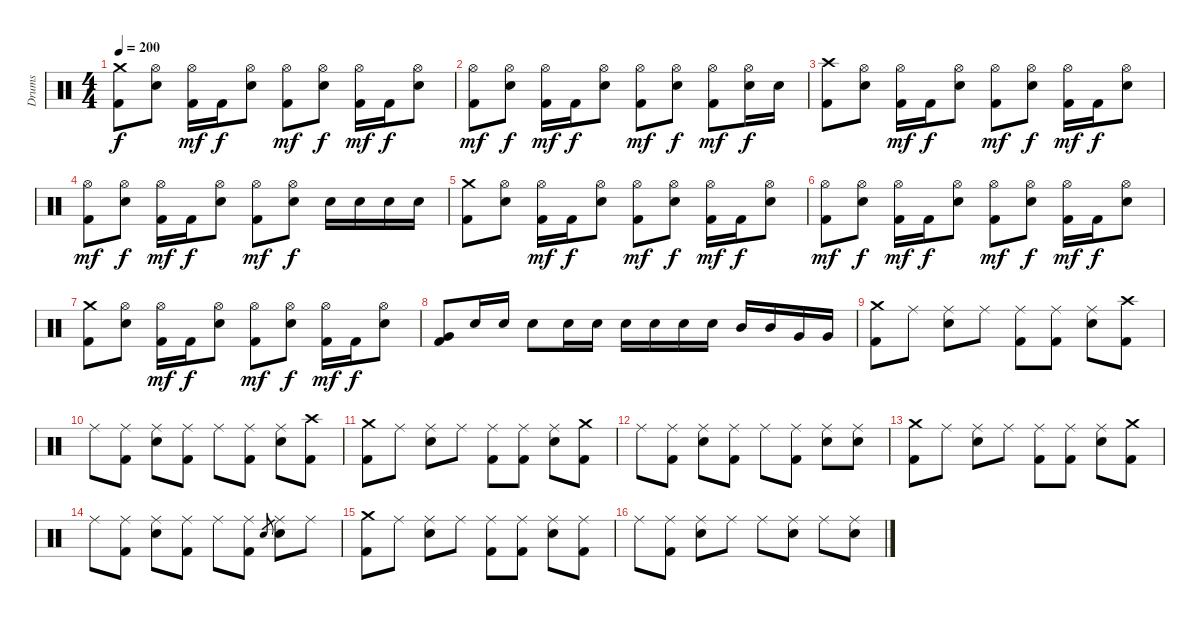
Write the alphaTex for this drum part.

\track ("Drums" "Drums") {instrument percussion}
\staff {score}
\articulation defaults
\ts (4 4)
\tempo 200
\clef neutral
\ks c
("Crash medium (hit)" "Kick (hit) 2").8{dy f} ("Hi-Hat (open)" "Electric Snare (hit)").8 ("Hi-Hat (open)" "Kick (hit) 2").16{dy mf} "Kick (hit) 2".16{dy f} ("Hi-Hat (open)" "Electric Snare (hit)").8 ("Hi-Hat (open)" "Kick (hit) 2").8{dy mf} ("Hi-Hat (open)" "Electric Snare (hit)").8{dy f} ("Hi-Hat (open)" "Kick (hit) 2").16{dy mf} "Kick (hit) 2".16{dy f} ("Hi-Hat (open)" "Electric Snare (hit)").8 |
("Hi-Hat (open)" "Kick (hit) 2").8{dy mf} ("Hi-Hat (open)" "Electric Snare (hit)").8{dy f} ("Hi-Hat (open)" "Kick (hit) 2").16{dy mf} "Kick (hit) 2".16{dy f} ("Hi-Hat (open)" "Electric Snare (hit)").8 ("Hi-Hat (open)" "Kick (hit) 2").8{dy mf} ("Hi-Hat (open)" "Electric Snare (hit)").8{dy f} ("Hi-Hat (open)" "Kick (hit) 2").8{dy mf} ("Hi-Hat (open)" "Electric Snare (hit)").16{dy f} "Electric Snare (hit)".16 |
("Crash high (hit)" "Kick (hit) 2").8 ("Hi-Hat (open)" "Electric Snare (hit)").8 ("Hi-Hat (open)" "Kick (hit) 2").16{dy mf} "Kick (hit) 2".16{dy f} ("Hi-Hat (open)" "Electric Snare (hit)").8 ("Hi-Hat (open)" "Kick (hit) 2").8{dy mf} ("Hi-Hat (open)" "Electric Snare (hit)").8{dy f} ("Hi-Hat (open)" "Kick (hit) 2").16{dy mf} "Kick (hit) 2".16{dy f} ("Hi-Hat (open)" "Electric Snare (hit)").8 |
("Hi-Hat (open)" "Kick (hit) 2").8{dy mf} ("Hi-Hat (open)" "Electric Snare (hit)").8{dy f} ("Hi-Hat (open)" "Kick (hit) 2").16{dy mf} "Kick (hit) 2".16{dy f} ("Hi-Hat (open)" "Electric Snare (hit)").8 ("Hi-Hat (open)" "Kick (hit) 2").8{dy mf} ("Hi-Hat (open)" "Electric Snare (hit)").8{dy f} "Electric Snare (hit)".16 "Electric Snare (hit)".16 "Electric Snare (hit)".16 "Electric Snare (hit)".16 |
("Crash medium (hit)" "Kick (hit) 2").8 ("Hi-Hat (open)" "Electric Snare (hit)").8 ("Hi-Hat (open)" "Kick (hit) 2").16{dy mf} "Kick (hit) 2".16{dy f} ("Hi-Hat (open)" "Electric Snare (hit)").8 ("Hi-Hat (open)" "Kick (hit) 2").8{dy mf} ("Hi-Hat (open)" "Electric Snare (hit)").8{dy f} ("Hi-Hat (open)" "Kick (hit) 2").16{dy mf} "Kick (hit) 2".16{dy f} ("Hi-Hat (open)" "Electric Snare (hit)").8 |
("Hi-Hat (open)" "Kick (hit) 2").8{dy mf} ("Hi-Hat (open)" "Electric Snare (hit)").8{dy f} ("Hi-Hat (open)" "Kick (hit) 2").16{dy mf} "Kick (hit) 2".16{dy f} ("Hi-Hat (open)" "Electric Snare (hit)").8 ("Hi-Hat (open)" "Kick (hit) 2").8{dy mf} ("Hi-Hat (open)" "Electric Snare (hit)").8{dy f} ("Hi-Hat (open)" "Kick (hit) 2").16{dy mf} "Kick (hit) 2".16{dy f} ("Hi-Hat (open)" "Electric Snare (hit)").8 |
("Crash medium (hit)" "Kick (hit) 2").8 ("Hi-Hat (open)" "Electric Snare (hit)").8 ("Hi-Hat (open)" "Kick (hit) 2").16{dy mf} "Kick (hit) 2".16{dy f} ("Hi-Hat (open)" "Electric Snare (hit)").8 ("Hi-Hat (open)" "Kick (hit) 2").8{dy mf} ("Hi-Hat (open)" "Electric Snare (hit)").8{dy f} ("Hi-Hat (open)" "Kick (hit) 2").16{dy mf} "Kick (hit) 2".16{dy f} ("Hi-Hat (open)" "Electric Snare (hit)").8 |
("Very Low Tom (hit)" "Kick (hit) 2").8 "Electric Snare (hit)".16 "Electric Snare (hit)".16 "Electric Snare (hit)".8 "Electric Snare (hit)".16 "Electric Snare (hit)".16 "Electric Snare (hit)".16 "Electric Snare (hit)".16 "Electric Snare (hit)".16 "Electric Snare (hit)".16 "Mid Tom (hit)".16 "Mid Tom (hit)".16 "Very Low Tom (hit)".16 "Very Low Tom (hit)".16 |
("Crash medium (hit)" "Kick (hit) 2").8 "Ride (middle)".8 ("Ride (middle)" "Electric Snare (hit)").8 "Ride (middle)".8 ("Ride (middle)" "Kick (hit) 2").8 ("Ride (middle)" "Kick (hit) 2").8 ("Ride (middle)" "Electric Snare (hit)").8 ("Crash high (hit)" "Kick (hit) 2").8 |
"Ride (middle)".8 ("Ride (middle)" "Kick (hit) 2").8 ("Ride (middle)" "Electric Snare (hit)").8 ("Ride (middle)" "Kick (hit) 2").8 "Ride (middle)".8 ("Ride (middle)" "Kick (hit) 2").8 ("Ride (middle)" "Electric Snare (hit)").8 ("Crash high (hit)" "Kick (hit) 2").8 |
("Crash medium (hit)" "Kick (hit) 2").8 "Ride (middle)".8 ("Ride (middle)" "Electric Snare (hit)").8 "Ride (middle)".8 ("Ride (middle)" "Kick (hit) 2").8 ("Ride (middle)" "Kick (hit) 2").8 ("Ride (middle)" "Electric Snare (hit)").8 ("Crash medium (hit)" "Kick (hit) 2").8 |
"Ride (middle)".8 ("Ride (middle)" "Kick (hit) 2").8 ("Ride (middle)" "Electric Snare (hit)").8 ("Ride (middle)" "Kick (hit) 2").8 "Ride (middle)".8 ("Ride (middle)" "Kick (hit) 2").8 ("Ride (middle)" "Electric Snare (hit)").8 ("Ride (middle)" "Electric Snare (hit)").8 |
("Crash medium (hit)" "Kick (hit) 2").8 "Ride (middle)".8 ("Ride (middle)" "Electric Snare (hit)").8 "Ride (middle)".8 ("Ride (middle)" "Kick (hit) 2").8 ("Ride (middle)" "Kick (hit) 2").8 ("Ride (middle)" "Electric Snare (hit)").8 ("Crash medium (hit)" "Kick (hit) 2").8 |
"Ride (middle)".8 ("Ride (middle)" "Kick (hit) 2").8 ("Ride (middle)" "Electric Snare (hit)").8 ("Ride (middle)" "Kick (hit) 2").8 "Ride (middle)".8 ("Ride (middle)" "Kick (hit) 2").8 "Electric Snare (hit)".8{gr} ("Ride (middle)" "Electric Snare (hit)").8 "Ride (middle)".8 |
("Crash medium (hit)" "Kick (hit) 2").8 "Ride (middle)".8 ("Ride (middle)" "Electric Snare (hit)").8 "Ride (middle)".8 ("Ride (middle)" "Kick (hit) 2").8 ("Ride (middle)" "Kick (hit) 2").8 ("Ride (middle)" "Electric Snare (hit)").8 ("Ride (middle)" "Kick (hit) 2").8 |
"Ride (middle)".8 ("Ride (middle)" "Kick (hit) 2").8 ("Ride (middle)" "Electric Snare (hit)").8 "Ride (middle)".8 "Ride (middle)".8 ("Ride (middle)" "Electric Snare (hit)").8 "Ride (middle)".8 ("Ride (middle)" "Electric Snare (hit)").8
